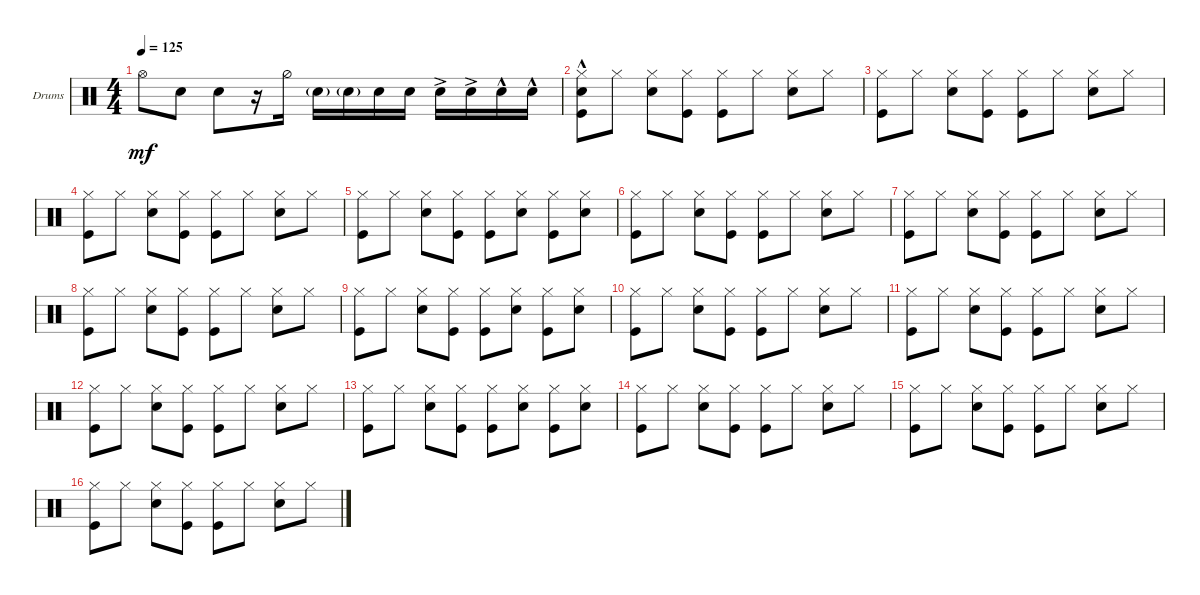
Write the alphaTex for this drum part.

\defaultSystemsLayout 4
\bracketExtendMode groupsimilarinstruments
\firstSystemTrackNameOrientation horizontal
\otherSystemsTrackNameOrientation horizontal
\track ("Drumkit" "Drums") {instrument percussion}
\staff {score}
\articulation defaults
\ts (4 4)
\tempo 125
\clef neutral
\ks c "Hi-Hat (open)".8{dy mf} "Snare (hit) 2".8 "Snare (hit) 2".8
r.16 "Hi-Hat (half)".16 "Snare (hit) 2"{g}.16 "Snare (hit) 2"{g}.16 "Snare (hit) 2".16 "Snare (hit) 2".16 "Snare (hit) 2"{ac}.16 "Snare (hit) 2"{ac}.16 "Snare (hit) 2"{hac}.16 "Snare (hit) 2"{hac}.16 |
("Hi-Hat (closed)" "Kick (hit)" "Snare (hit) 2"{hac}).8 "Hi-Hat (closed)".8 ("Hi-Hat (closed)" "Snare (hit) 2").8 ("Hi-Hat (closed)" "Kick (hit)").8 ("Hi-Hat (closed)" "Kick (hit)").8 "Hi-Hat (closed)".8 ("Hi-Hat (closed)" "Snare (hit) 2").8 "Hi-Hat (closed)".8 |
("Hi-Hat (closed)" "Kick (hit)").8 "Hi-Hat (closed)".8 ("Hi-Hat (closed)" "Snare (hit) 2").8 ("Hi-Hat (closed)" "Kick (hit)").8 ("Hi-Hat (closed)" "Kick (hit)").8 "Hi-Hat (closed)".8 ("Hi-Hat (closed)" "Snare (hit) 2").8 "Hi-Hat (closed)".8 |
("Hi-Hat (closed)" "Kick (hit)").8 "Hi-Hat (closed)".8 ("Hi-Hat (closed)" "Snare (hit) 2").8 ("Hi-Hat (closed)" "Kick (hit)").8 ("Hi-Hat (closed)" "Kick (hit)").8 "Hi-Hat (closed)".8 ("Hi-Hat (closed)" "Snare (hit) 2").8 "Hi-Hat (closed)".8 |
("Hi-Hat (closed)" "Kick (hit)").8 "Hi-Hat (closed)".8 ("Hi-Hat (closed)" "Snare (hit) 2").8 ("Hi-Hat (closed)" "Kick (hit)").8 ("Hi-Hat (closed)" "Kick (hit)").8 ("Hi-Hat (closed)" "Snare (hit) 2").8 ("Hi-Hat (closed)" "Kick (hit)").8 ("Hi-Hat (closed)" "Snare (hit) 2").8 |
("Hi-Hat (closed)" "Kick (hit)").8 "Hi-Hat (closed)".8 ("Hi-Hat (closed)" "Snare (hit) 2").8 ("Hi-Hat (closed)" "Kick (hit)").8 ("Hi-Hat (closed)" "Kick (hit)").8 "Hi-Hat (closed)".8 ("Hi-Hat (closed)" "Snare (hit) 2").8 "Hi-Hat (closed)".8 |
("Hi-Hat (closed)" "Kick (hit)").8 "Hi-Hat (closed)".8 ("Hi-Hat (closed)" "Snare (hit) 2").8 ("Hi-Hat (closed)" "Kick (hit)").8 ("Hi-Hat (closed)" "Kick (hit)").8 "Hi-Hat (closed)".8 ("Hi-Hat (closed)" "Snare (hit) 2").8 "Hi-Hat (closed)".8 |
("Hi-Hat (closed)" "Kick (hit)").8 "Hi-Hat (closed)".8 ("Hi-Hat (closed)" "Snare (hit) 2").8 ("Hi-Hat (closed)" "Kick (hit)").8 ("Hi-Hat (closed)" "Kick (hit)").8 "Hi-Hat (closed)".8 ("Hi-Hat (closed)" "Snare (hit) 2").8 "Hi-Hat (closed)".8 |
("Hi-Hat (closed)" "Kick (hit)").8 "Hi-Hat (closed)".8 ("Hi-Hat (closed)" "Snare (hit) 2").8 ("Hi-Hat (closed)" "Kick (hit)").8 ("Hi-Hat (closed)" "Kick (hit)").8 ("Hi-Hat (closed)" "Snare (hit) 2").8 ("Hi-Hat (closed)" "Kick (hit)").8 ("Hi-Hat (closed)" "Snare (hit) 2").8 |
("Hi-Hat (closed)" "Kick (hit)").8 "Hi-Hat (closed)".8 ("Hi-Hat (closed)" "Snare (hit) 2").8 ("Hi-Hat (closed)" "Kick (hit)").8 ("Hi-Hat (closed)" "Kick (hit)").8 "Hi-Hat (closed)".8 ("Hi-Hat (closed)" "Snare (hit) 2").8 "Hi-Hat (closed)".8 |
("Hi-Hat (closed)" "Kick (hit)").8 "Hi-Hat (closed)".8 ("Hi-Hat (closed)" "Snare (hit) 2").8 ("Hi-Hat (closed)" "Kick (hit)").8 ("Hi-Hat (closed)" "Kick (hit)").8 "Hi-Hat (closed)".8 ("Hi-Hat (closed)" "Snare (hit) 2").8 "Hi-Hat (closed)".8 |
("Hi-Hat (closed)" "Kick (hit)").8 "Hi-Hat (closed)".8 ("Hi-Hat (closed)" "Snare (hit) 2").8 ("Hi-Hat (closed)" "Kick (hit)").8 ("Hi-Hat (closed)" "Kick (hit)").8 "Hi-Hat (closed)".8 ("Hi-Hat (closed)" "Snare (hit) 2").8 "Hi-Hat (closed)".8 |
("Hi-Hat (closed)" "Kick (hit)").8 "Hi-Hat (closed)".8 ("Hi-Hat (closed)" "Snare (hit) 2").8 ("Hi-Hat (closed)" "Kick (hit)").8 ("Hi-Hat (closed)" "Kick (hit)").8 ("Hi-Hat (closed)" "Snare (hit) 2").8 ("Hi-Hat (closed)" "Kick (hit)").8 ("Hi-Hat (closed)" "Snare (hit) 2").8 |
("Hi-Hat (closed)" "Kick (hit)").8 "Hi-Hat (closed)".8 ("Hi-Hat (closed)" "Snare (hit) 2").8 ("Hi-Hat (closed)" "Kick (hit)").8 ("Hi-Hat (closed)" "Kick (hit)").8 "Hi-Hat (closed)".8 ("Hi-Hat (closed)" "Snare (hit) 2").8 "Hi-Hat (closed)".8 |
("Hi-Hat (closed)" "Kick (hit)").8 "Hi-Hat (closed)".8 ("Hi-Hat (closed)" "Snare (hit) 2").8 ("Hi-Hat (closed)" "Kick (hit)").8 ("Hi-Hat (closed)" "Kick (hit)").8 "Hi-Hat (closed)".8 ("Hi-Hat (closed)" "Snare (hit) 2").8 "Hi-Hat (closed)".8 |
("Hi-Hat (closed)" "Kick (hit)").8 "Hi-Hat (closed)".8 ("Hi-Hat (closed)" "Snare (hit) 2").8 ("Hi-Hat (closed)" "Kick (hit)").8 ("Hi-Hat (closed)" "Kick (hit)").8 "Hi-Hat (closed)".8 ("Hi-Hat (closed)" "Snare (hit) 2").8 "Hi-Hat (closed)".8
